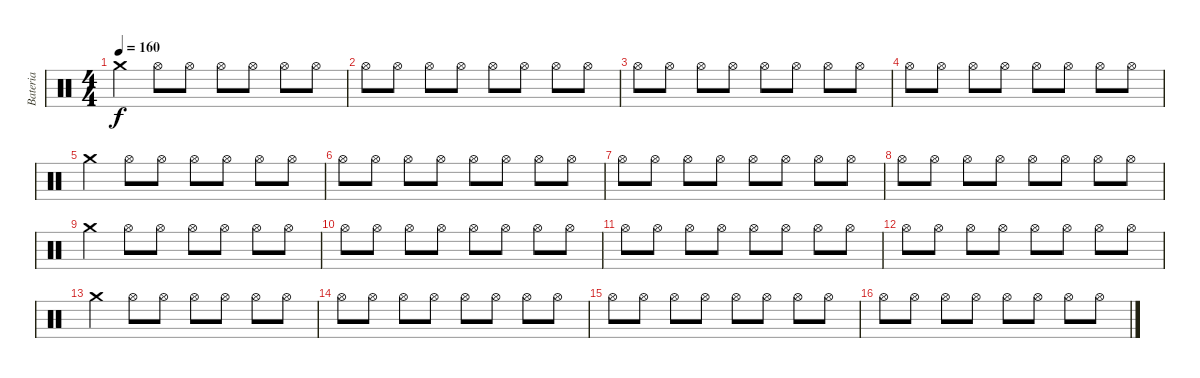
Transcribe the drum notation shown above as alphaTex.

\track ("Bateria" "Bateria") {instrument percussion}
\staff {score}
\articulation defaults
\ts (4 4)
\tempo 160
\clef neutral
\ks c "Crash medium (hit)".4{dy f} "Hi-Hat (open)".8 "Hi-Hat (open)".8 "Hi-Hat (open)".8 "Hi-Hat (open)".8 "Hi-Hat (open)".8 "Hi-Hat (open)".8
|
"Hi-Hat (open)".8 "Hi-Hat (open)".8 "Hi-Hat (open)".8 "Hi-Hat (open)".8 "Hi-Hat (open)".8 "Hi-Hat (open)".8 "Hi-Hat (open)".8 "Hi-Hat (open)".8 |
"Hi-Hat (open)".8 "Hi-Hat (open)".8 "Hi-Hat (open)".8 "Hi-Hat (open)".8 "Hi-Hat (open)".8 "Hi-Hat (open)".8 "Hi-Hat (open)".8 "Hi-Hat (open)".8 |
"Hi-Hat (open)".8 "Hi-Hat (open)".8 "Hi-Hat (open)".8 "Hi-Hat (open)".8 "Hi-Hat (open)".8 "Hi-Hat (open)".8 "Hi-Hat (open)".8 "Hi-Hat (open)".8 |
"Crash medium (hit)".4 "Hi-Hat (open)".8 "Hi-Hat (open)".8 "Hi-Hat (open)".8 "Hi-Hat (open)".8 "Hi-Hat (open)".8 "Hi-Hat (open)".8 |
"Hi-Hat (open)".8 "Hi-Hat (open)".8 "Hi-Hat (open)".8 "Hi-Hat (open)".8 "Hi-Hat (open)".8 "Hi-Hat (open)".8 "Hi-Hat (open)".8 "Hi-Hat (open)".8 |
"Hi-Hat (open)".8 "Hi-Hat (open)".8 "Hi-Hat (open)".8 "Hi-Hat (open)".8 "Hi-Hat (open)".8 "Hi-Hat (open)".8 "Hi-Hat (open)".8 "Hi-Hat (open)".8 |
"Hi-Hat (open)".8 "Hi-Hat (open)".8 "Hi-Hat (open)".8 "Hi-Hat (open)".8 "Hi-Hat (open)".8 "Hi-Hat (open)".8 "Hi-Hat (open)".8 "Hi-Hat (open)".8 |
"Crash medium (hit)".4 "Hi-Hat (open)".8 "Hi-Hat (open)".8 "Hi-Hat (open)".8 "Hi-Hat (open)".8 "Hi-Hat (open)".8 "Hi-Hat (open)".8 |
"Hi-Hat (open)".8 "Hi-Hat (open)".8 "Hi-Hat (open)".8 "Hi-Hat (open)".8 "Hi-Hat (open)".8 "Hi-Hat (open)".8 "Hi-Hat (open)".8 "Hi-Hat (open)".8 |
"Hi-Hat (open)".8 "Hi-Hat (open)".8 "Hi-Hat (open)".8 "Hi-Hat (open)".8 "Hi-Hat (open)".8 "Hi-Hat (open)".8 "Hi-Hat (open)".8 "Hi-Hat (open)".8 |
"Hi-Hat (open)".8 "Hi-Hat (open)".8 "Hi-Hat (open)".8 "Hi-Hat (open)".8 "Hi-Hat (open)".8 "Hi-Hat (open)".8 "Hi-Hat (open)".8 "Hi-Hat (open)".8 |
"Crash medium (hit)".4 "Hi-Hat (open)".8 "Hi-Hat (open)".8 "Hi-Hat (open)".8 "Hi-Hat (open)".8 "Hi-Hat (open)".8 "Hi-Hat (open)".8 |
"Hi-Hat (open)".8 "Hi-Hat (open)".8 "Hi-Hat (open)".8 "Hi-Hat (open)".8 "Hi-Hat (open)".8 "Hi-Hat (open)".8 "Hi-Hat (open)".8 "Hi-Hat (open)".8 |
"Hi-Hat (open)".8 "Hi-Hat (open)".8 "Hi-Hat (open)".8 "Hi-Hat (open)".8 "Hi-Hat (open)".8 "Hi-Hat (open)".8 "Hi-Hat (open)".8 "Hi-Hat (open)".8 |
"Hi-Hat (open)".8 "Hi-Hat (open)".8 "Hi-Hat (open)".8 "Hi-Hat (open)".8 "Hi-Hat (open)".8 "Hi-Hat (open)".8 "Hi-Hat (open)".8 "Hi-Hat (open)".8
